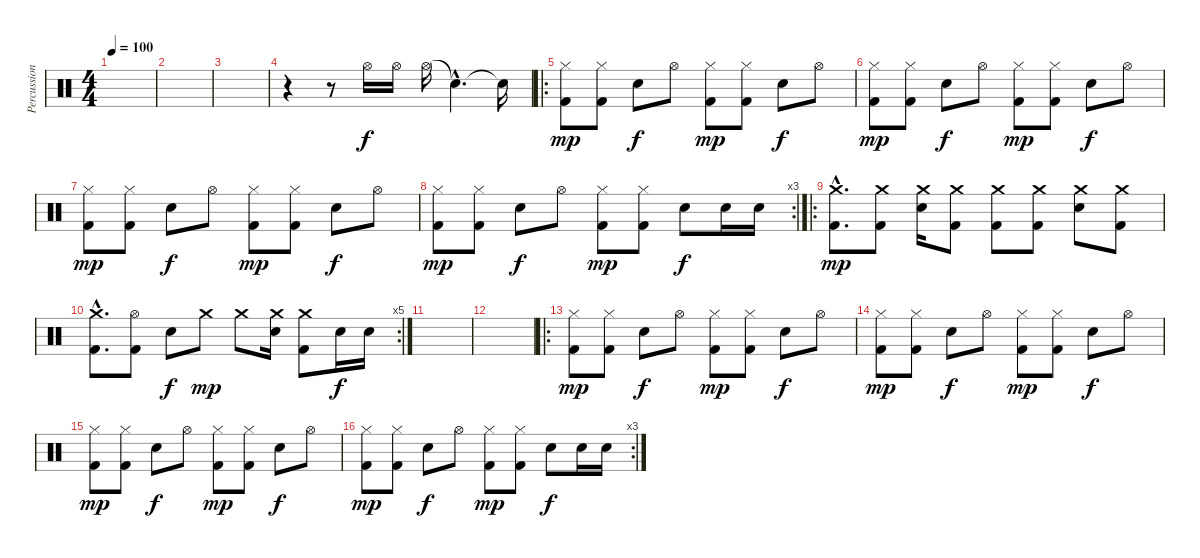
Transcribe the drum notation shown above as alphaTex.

\track ("Percussion" "Percussion") {instrument percussion}
\staff {score}
\articulation defaults
\ts (4 4)
\tempo 100
\clef neutral
\ks c
|
|
|
r.4 r.8 "Hi-Hat (open)".16 "Hi-Hat (open)".16 "Hi-Hat (open)".16 "Snare (hit)"{hac t}.4{d} "Snare (hit)"{t}.16 |
\ro
("Hi-Hat (closed)" "Kick (hit) 2").8{dy mp} ("Hi-Hat (closed)" "Kick (hit) 2").8 "Electric Snare (hit)".8{dy f} "Hi-Hat (open)".8 ("Hi-Hat (closed)" "Kick (hit) 2").8{dy mp} ("Hi-Hat (closed)" "Kick (hit) 2").8 "Electric Snare (hit)".8{dy f} "Hi-Hat (open)".8 |
("Hi-Hat (closed)" "Kick (hit) 2").8{dy mp} ("Hi-Hat (closed)" "Kick (hit) 2").8 "Electric Snare (hit)".8{dy f} "Hi-Hat (open)".8 ("Hi-Hat (closed)" "Kick (hit) 2").8{dy mp} ("Hi-Hat (closed)" "Kick (hit) 2").8 "Electric Snare (hit)".8{dy f} "Hi-Hat (open)".8 |
("Hi-Hat (closed)" "Kick (hit) 2").8{dy mp} ("Hi-Hat (closed)" "Kick (hit) 2").8 "Electric Snare (hit)".8{dy f} "Hi-Hat (open)".8 ("Hi-Hat (closed)" "Kick (hit) 2").8{dy mp} ("Hi-Hat (closed)" "Kick (hit) 2").8 "Electric Snare (hit)".8{dy f} "Hi-Hat (open)".8 |
\rc 3
("Hi-Hat (closed)" "Kick (hit) 2").8{dy mp} ("Hi-Hat (closed)" "Kick (hit) 2").8 "Electric Snare (hit)".8{dy f} "Hi-Hat (open)".8 ("Hi-Hat (closed)" "Kick (hit) 2").8{dy mp} ("Hi-Hat (closed)" "Kick (hit) 2").8 "Electric Snare (hit)".8{dy f} "Snare (hit) 2".16 "Snare (hit) 2".16 |
\ro
("Crash medium (hit)"{hac} "Kick (hit) 2"{hac}).8{d dy mp} ("Crash medium (hit)" "Kick (hit) 2").8 ("Crash medium (hit)" "Snare (hit) 2").16 ("Crash medium (hit)" "Kick (hit) 2").8 ("Crash medium (hit)" "Kick (hit) 2").8 ("Crash medium (hit)" "Kick (hit) 2").8 ("Crash medium (hit)" "Snare (hit) 2").8 ("Crash medium (hit)" "Kick (hit) 2").8 |
\rc 5
("Crash medium (hit)"{hac} "Kick (hit) 2"{hac}).8{d} ("Hi-Hat (open)" "Kick (hit) 2").8 "Snare (hit) 2".8{dy f} "Crash medium (hit)".8{dy mp} "Crash medium (hit)".8 ("Crash medium (hit)" "Snare (hit) 2").16 ("Crash medium (hit)" "Kick (hit) 2").8 "Snare (hit) 2".16{dy f} "Snare (hit) 2".16 |
|
|
\ro
("Hi-Hat (closed)" "Kick (hit) 2").8{dy mp} ("Hi-Hat (closed)" "Kick (hit) 2").8 "Electric Snare (hit)".8{dy f} "Hi-Hat (open)".8 ("Hi-Hat (closed)" "Kick (hit) 2").8{dy mp} ("Hi-Hat (closed)" "Kick (hit) 2").8 "Electric Snare (hit)".8{dy f} "Hi-Hat (open)".8 |
("Hi-Hat (closed)" "Kick (hit) 2").8{dy mp} ("Hi-Hat (closed)" "Kick (hit) 2").8 "Electric Snare (hit)".8{dy f} "Hi-Hat (open)".8 ("Hi-Hat (closed)" "Kick (hit) 2").8{dy mp} ("Hi-Hat (closed)" "Kick (hit) 2").8 "Electric Snare (hit)".8{dy f} "Hi-Hat (open)".8 |
("Hi-Hat (closed)" "Kick (hit) 2").8{dy mp} ("Hi-Hat (closed)" "Kick (hit) 2").8 "Electric Snare (hit)".8{dy f} "Hi-Hat (open)".8 ("Hi-Hat (closed)" "Kick (hit) 2").8{dy mp} ("Hi-Hat (closed)" "Kick (hit) 2").8 "Electric Snare (hit)".8{dy f} "Hi-Hat (open)".8 |
\rc 3
("Hi-Hat (closed)" "Kick (hit) 2").8{dy mp} ("Hi-Hat (closed)" "Kick (hit) 2").8 "Electric Snare (hit)".8{dy f} "Hi-Hat (open)".8 ("Hi-Hat (closed)" "Kick (hit) 2").8{dy mp} ("Hi-Hat (closed)" "Kick (hit) 2").8 "Electric Snare (hit)".8{dy f} "Snare (hit) 2".16 "Snare (hit) 2".16
